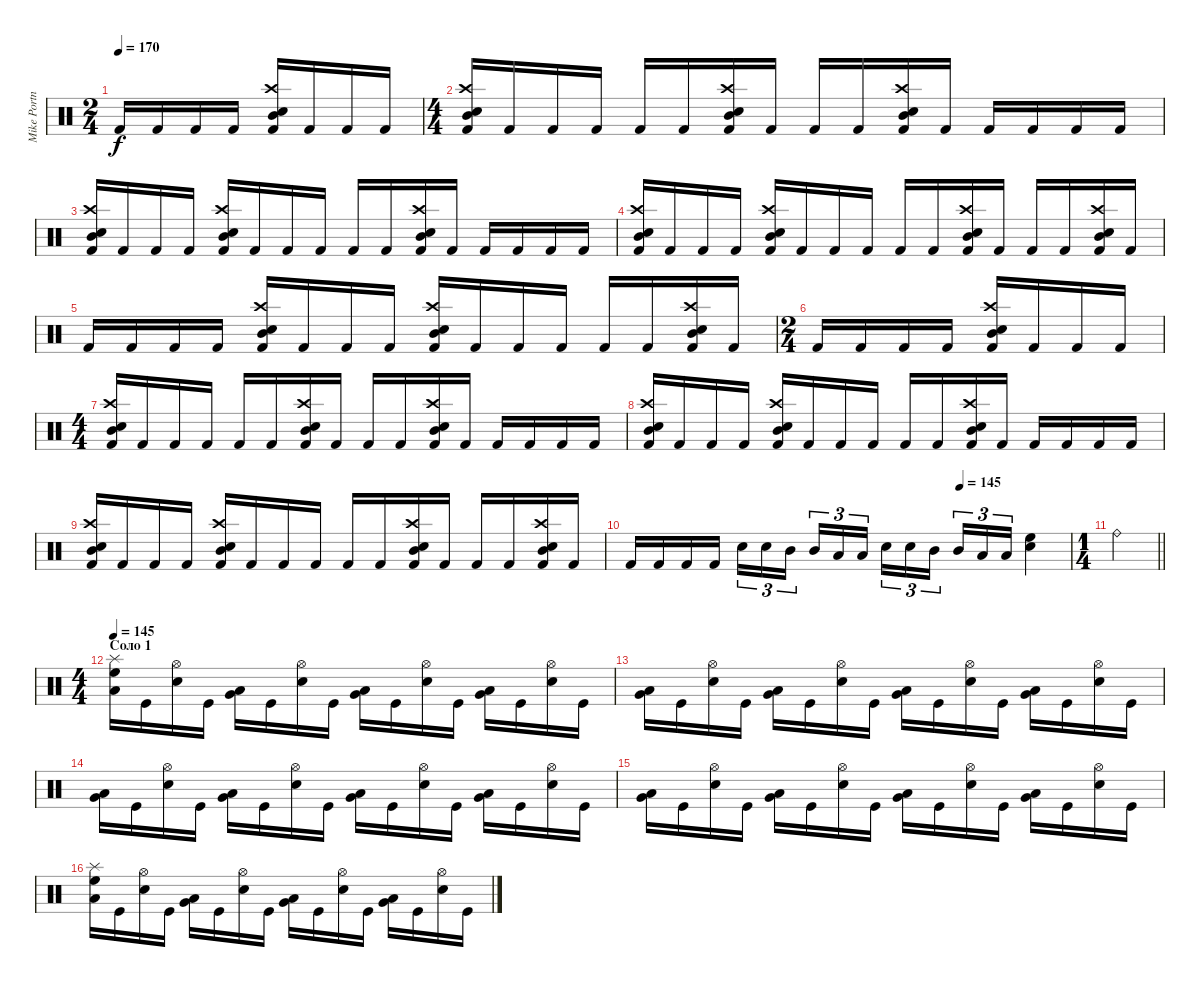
\track ("Mike Portnoy" "Mike Portn") {instrument percussion}
\staff {score}
\articulation defaults
\ts (2 4)
\tempo 170
\clef neutral
\ks c "Kick (hit) 2".16{dy f} "Kick (hit) 2".16 "Kick (hit) 2".16 "Kick (hit) 2".16
("Crash high (hit)" "Electric Snare (hit)" "Mid Tom (hit)" "Kick (hit) 2").16 "Kick (hit) 2".16 "Kick (hit) 2".16 "Kick (hit) 2".16 |
\ts (4 4)
("Crash high (hit)" "Electric Snare (hit)" "Mid Tom (hit)" "Kick (hit) 2").16 "Kick (hit) 2".16 "Kick (hit) 2".16 "Kick (hit) 2".16 "Kick (hit) 2".16 "Kick (hit) 2".16 ("Crash high (hit)" "Electric Snare (hit)" "Mid Tom (hit)" "Kick (hit) 2").16 "Kick (hit) 2".16 "Kick (hit) 2".16 "Kick (hit) 2".16 ("Crash high (hit)" "Electric Snare (hit)" "Mid Tom (hit)" "Kick (hit) 2").16 "Kick (hit) 2".16 "Kick (hit) 2".16 "Kick (hit) 2".16 "Kick (hit) 2".16 "Kick (hit) 2".16 |
("Crash high (hit)" "Electric Snare (hit)" "Mid Tom (hit)" "Kick (hit) 2").16 "Kick (hit) 2".16 "Kick (hit) 2".16 "Kick (hit) 2".16 ("Crash high (hit)" "Electric Snare (hit)" "Mid Tom (hit)" "Kick (hit) 2").16 "Kick (hit) 2".16 "Kick (hit) 2".16 "Kick (hit) 2".16 "Kick (hit) 2".16 "Kick (hit) 2".16 ("Crash high (hit)" "Electric Snare (hit)" "Mid Tom (hit)" "Kick (hit) 2").16 "Kick (hit) 2".16 "Kick (hit) 2".16 "Kick (hit) 2".16 "Kick (hit) 2".16 "Kick (hit) 2".16 |
("Crash high (hit)" "Electric Snare (hit)" "Mid Tom (hit)" "Kick (hit) 2").16 "Kick (hit) 2".16 "Kick (hit) 2".16 "Kick (hit) 2".16 ("Crash high (hit)" "Electric Snare (hit)" "Mid Tom (hit)" "Kick (hit) 2").16 "Kick (hit) 2".16 "Kick (hit) 2".16 "Kick (hit) 2".16 "Kick (hit) 2".16 "Kick (hit) 2".16 ("Crash high (hit)" "Electric Snare (hit)" "Mid Tom (hit)" "Kick (hit) 2").16 "Kick (hit) 2".16 "Kick (hit) 2".16 "Kick (hit) 2".16 ("Crash high (hit)" "Electric Snare (hit)" "Mid Tom (hit)" "Kick (hit) 2").16 "Kick (hit) 2".16 |
"Kick (hit) 2".16 "Kick (hit) 2".16 "Kick (hit) 2".16 "Kick (hit) 2".16 ("Crash high (hit)" "Electric Snare (hit)" "Mid Tom (hit)" "Kick (hit) 2").16 "Kick (hit) 2".16 "Kick (hit) 2".16 "Kick (hit) 2".16 ("Crash high (hit)" "Electric Snare (hit)" "Mid Tom (hit)" "Kick (hit) 2").16 "Kick (hit) 2".16 "Kick (hit) 2".16 "Kick (hit) 2".16 "Kick (hit) 2".16 "Kick (hit) 2".16 ("Crash high (hit)" "Electric Snare (hit)" "Mid Tom (hit)" "Kick (hit) 2").16 "Kick (hit) 2".16 |
\ts (2 4)
"Kick (hit) 2".16 "Kick (hit) 2".16 "Kick (hit) 2".16 "Kick (hit) 2".16 ("Crash high (hit)" "Electric Snare (hit)" "Mid Tom (hit)" "Kick (hit) 2").16 "Kick (hit) 2".16 "Kick (hit) 2".16 "Kick (hit) 2".16 |
\ts (4 4)
("Crash high (hit)" "Electric Snare (hit)" "Mid Tom (hit)" "Kick (hit) 2").16 "Kick (hit) 2".16 "Kick (hit) 2".16 "Kick (hit) 2".16 "Kick (hit) 2".16 "Kick (hit) 2".16 ("Crash high (hit)" "Electric Snare (hit)" "Mid Tom (hit)" "Kick (hit) 2").16 "Kick (hit) 2".16 "Kick (hit) 2".16 "Kick (hit) 2".16 ("Crash high (hit)" "Electric Snare (hit)" "Mid Tom (hit)" "Kick (hit) 2").16 "Kick (hit) 2".16 "Kick (hit) 2".16 "Kick (hit) 2".16 "Kick (hit) 2".16 "Kick (hit) 2".16 |
("Crash high (hit)" "Electric Snare (hit)" "Mid Tom (hit)" "Kick (hit) 2").16 "Kick (hit) 2".16 "Kick (hit) 2".16 "Kick (hit) 2".16 ("Crash high (hit)" "Electric Snare (hit)" "Mid Tom (hit)" "Kick (hit) 2").16 "Kick (hit) 2".16 "Kick (hit) 2".16 "Kick (hit) 2".16 "Kick (hit) 2".16 "Kick (hit) 2".16 ("Crash high (hit)" "Electric Snare (hit)" "Mid Tom (hit)" "Kick (hit) 2").16 "Kick (hit) 2".16 "Kick (hit) 2".16 "Kick (hit) 2".16 "Kick (hit) 2".16 "Kick (hit) 2".16 |
("Crash high (hit)" "Electric Snare (hit)" "Mid Tom (hit)" "Kick (hit) 2").16 "Kick (hit) 2".16 "Kick (hit) 2".16 "Kick (hit) 2".16 ("Crash high (hit)" "Electric Snare (hit)" "Mid Tom (hit)" "Kick (hit) 2").16 "Kick (hit) 2".16 "Kick (hit) 2".16 "Kick (hit) 2".16 "Kick (hit) 2".16 "Kick (hit) 2".16 ("Crash high (hit)" "Electric Snare (hit)" "Mid Tom (hit)" "Kick (hit) 2").16 "Kick (hit) 2".16 "Kick (hit) 2".16 "Kick (hit) 2".16 ("Crash high (hit)" "Electric Snare (hit)" "Mid Tom (hit)" "Kick (hit) 2").16 "Kick (hit) 2".16 |
\tempo (145 0.75)
"Kick (hit) 2".16 "Kick (hit) 2".16 "Kick (hit) 2".16 "Kick (hit) 2".16 "Electric Snare (hit)".16{tu (3 2)} "Electric Snare (hit)".16{tu (3 2)} "Mid Tom (hit)".16{tu (3 2) beam splitsecondary} "Mid Tom (hit)".16{tu (3 2)} "Low Tom (hit)".16{tu (3 2)} "Low Tom (hit)".16{tu (3 2)} "Electric Snare (hit)".16{tu (3 2)} "Electric Snare (hit)".16{tu (3 2)} "Mid Tom (hit)".16{tu (3 2) beam splitsecondary} "Mid Tom (hit)".16{tu (3 2)} "Low Tom (hit)".16{tu (3 2)} "Low Tom (hit)".16{tu (3 2)} ("Electric Snare (hit)" "High Floor Tom (hit)").4 |
\ts (1 4)
\barLineRight lightlight "Ride (bell)".4
|
\ts (4 4)
\section ("" "Соло 1")
\tempo 145
("Splash (hit)" "Low Tom (hit)" "High Floor Tom (hit)").16 "Kick (hit)".16 ("Hi-Hat (open)" "Electric Snare (hit)").16 "Kick (hit)".16 ("Low Floor Tom (hit)" "Very Low Tom (hit)").16 "Kick (hit)".16 ("Hi-Hat (open)" "Electric Snare (hit)").16 "Kick (hit)".16 ("Low Floor Tom (hit)" "Very Low Tom (hit)").16 "Kick (hit)".16 ("Hi-Hat (open)" "Electric Snare (hit)").16 "Kick (hit)".16 ("Low Floor Tom (hit)" "Very Low Tom (hit)").16 "Kick (hit)".16 ("Hi-Hat (open)" "Electric Snare (hit)").16 "Kick (hit)".16 |
("Low Floor Tom (hit)" "Very Low Tom (hit)").16 "Kick (hit)".16 ("Hi-Hat (open)" "Electric Snare (hit)").16 "Kick (hit)".16 ("Low Floor Tom (hit)" "Very Low Tom (hit)").16 "Kick (hit)".16 ("Hi-Hat (open)" "Electric Snare (hit)").16 "Kick (hit)".16 ("Low Floor Tom (hit)" "Very Low Tom (hit)").16 "Kick (hit)".16 ("Hi-Hat (open)" "Electric Snare (hit)").16 "Kick (hit)".16 ("Low Floor Tom (hit)" "Very Low Tom (hit)").16 "Kick (hit)".16 ("Hi-Hat (open)" "Electric Snare (hit)").16 "Kick (hit)".16 |
("Low Floor Tom (hit)" "Very Low Tom (hit)").16 "Kick (hit)".16 ("Hi-Hat (open)" "Electric Snare (hit)").16 "Kick (hit)".16 ("Low Floor Tom (hit)" "Very Low Tom (hit)").16 "Kick (hit)".16 ("Hi-Hat (open)" "Electric Snare (hit)").16 "Kick (hit)".16 ("Low Floor Tom (hit)" "Very Low Tom (hit)").16 "Kick (hit)".16 ("Hi-Hat (open)" "Electric Snare (hit)").16 "Kick (hit)".16 ("Low Floor Tom (hit)" "Very Low Tom (hit)").16 "Kick (hit)".16 ("Hi-Hat (open)" "Electric Snare (hit)").16 "Kick (hit)".16 |
("Low Floor Tom (hit)" "Very Low Tom (hit)").16 "Kick (hit)".16 ("Hi-Hat (open)" "Electric Snare (hit)").16 "Kick (hit)".16 ("Low Floor Tom (hit)" "Very Low Tom (hit)").16 "Kick (hit)".16 ("Hi-Hat (open)" "Electric Snare (hit)").16 "Kick (hit)".16 ("Low Floor Tom (hit)" "Very Low Tom (hit)").16 "Kick (hit)".16 ("Hi-Hat (open)" "Electric Snare (hit)").16 "Kick (hit)".16 ("Low Floor Tom (hit)" "Very Low Tom (hit)").16 "Kick (hit)".16 ("Hi-Hat (open)" "Electric Snare (hit)").16 "Kick (hit)".16 |
("Splash (hit)" "Low Tom (hit)" "High Floor Tom (hit)").16 "Kick (hit)".16 ("Hi-Hat (open)" "Electric Snare (hit)").16 "Kick (hit)".16 ("Low Floor Tom (hit)" "Very Low Tom (hit)").16 "Kick (hit)".16 ("Hi-Hat (open)" "Electric Snare (hit)").16 "Kick (hit)".16 ("Low Floor Tom (hit)" "Very Low Tom (hit)").16 "Kick (hit)".16 ("Hi-Hat (open)" "Electric Snare (hit)").16 "Kick (hit)".16 ("Low Floor Tom (hit)" "Very Low Tom (hit)").16 "Kick (hit)".16 ("Hi-Hat (open)" "Electric Snare (hit)").16 "Kick (hit)".16
